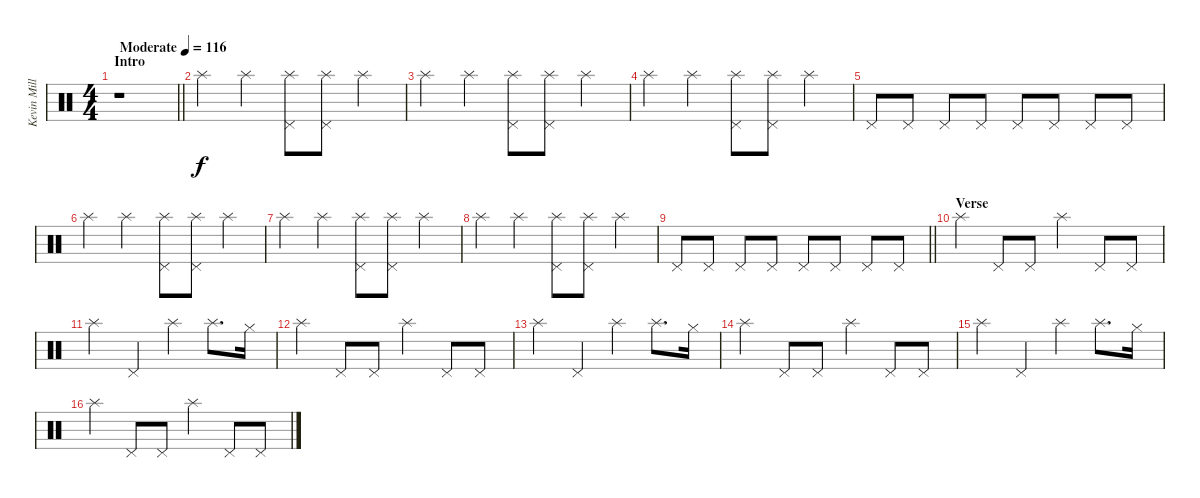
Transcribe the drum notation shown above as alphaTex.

\track ("Kevin Miller (Drums)" "Kevin Mill") {instrument percussion}
\staff {score}
\articulation defaults
\ts (4 4)
\section ("" "Intro")
\tempo (116 "Moderate")
\clef neutral
\barLineRight lightlight
\ks c
r.1{dy f} |
"Splash (hit)".4 "Splash (hit)".4 ("Splash (hit)" "Pedal Hi-Hat (hit)").8 ("Splash (hit)" "Pedal Hi-Hat (hit)").8 "Splash (hit)".4 |
"Splash (hit)".4 "Splash (hit)".4 ("Splash (hit)" "Pedal Hi-Hat (hit)").8 ("Splash (hit)" "Pedal Hi-Hat (hit)").8 "Splash (hit)".4 |
"Splash (hit)".4 "Splash (hit)".4 ("Splash (hit)" "Pedal Hi-Hat (hit)").8 ("Splash (hit)" "Pedal Hi-Hat (hit)").8 "Splash (hit)".4 |
"Pedal Hi-Hat (hit)".8 "Pedal Hi-Hat (hit)".8 "Pedal Hi-Hat (hit)".8 "Pedal Hi-Hat (hit)".8 "Pedal Hi-Hat (hit)".8 "Pedal Hi-Hat (hit)".8 "Pedal Hi-Hat (hit)".8 "Pedal Hi-Hat (hit)".8 |
"Splash (hit)".4 "Splash (hit)".4 ("Splash (hit)" "Pedal Hi-Hat (hit)").8 ("Splash (hit)" "Pedal Hi-Hat (hit)").8 "Splash (hit)".4 |
"Splash (hit)".4 "Splash (hit)".4 ("Splash (hit)" "Pedal Hi-Hat (hit)").8 ("Splash (hit)" "Pedal Hi-Hat (hit)").8 "Splash (hit)".4 |
"Splash (hit)".4 "Splash (hit)".4 ("Splash (hit)" "Pedal Hi-Hat (hit)").8 ("Splash (hit)" "Pedal Hi-Hat (hit)").8 "Splash (hit)".4 |
\barLineRight lightlight "Pedal Hi-Hat (hit)".8 "Pedal Hi-Hat (hit)".8 "Pedal Hi-Hat (hit)".8 "Pedal Hi-Hat (hit)".8 "Pedal Hi-Hat (hit)".8 "Pedal Hi-Hat (hit)".8 "Pedal Hi-Hat (hit)".8 "Pedal Hi-Hat (hit)".8
|
\section ("" "Verse")
"Splash (hit)".4 "Pedal Hi-Hat (hit)".8 "Pedal Hi-Hat (hit)".8 "Splash (hit)".4 "Pedal Hi-Hat (hit)".8 "Pedal Hi-Hat (hit)".8 |
"Splash (hit)".4 "Pedal Hi-Hat (hit)".4 "Splash (hit)".4 "Splash (hit)".8{d} "Hi-Hat (closed)".16 |
"Splash (hit)".4 "Pedal Hi-Hat (hit)".8 "Pedal Hi-Hat (hit)".8 "Splash (hit)".4 "Pedal Hi-Hat (hit)".8 "Pedal Hi-Hat (hit)".8 |
"Splash (hit)".4 "Pedal Hi-Hat (hit)".4 "Splash (hit)".4 "Splash (hit)".8{d} "Hi-Hat (closed)".16 |
"Splash (hit)".4 "Pedal Hi-Hat (hit)".8 "Pedal Hi-Hat (hit)".8 "Splash (hit)".4 "Pedal Hi-Hat (hit)".8 "Pedal Hi-Hat (hit)".8 |
"Splash (hit)".4 "Pedal Hi-Hat (hit)".4 "Splash (hit)".4 "Splash (hit)".8{d} "Hi-Hat (closed)".16 |
"Splash (hit)".4 "Pedal Hi-Hat (hit)".8 "Pedal Hi-Hat (hit)".8 "Splash (hit)".4 "Pedal Hi-Hat (hit)".8 "Pedal Hi-Hat (hit)".8
